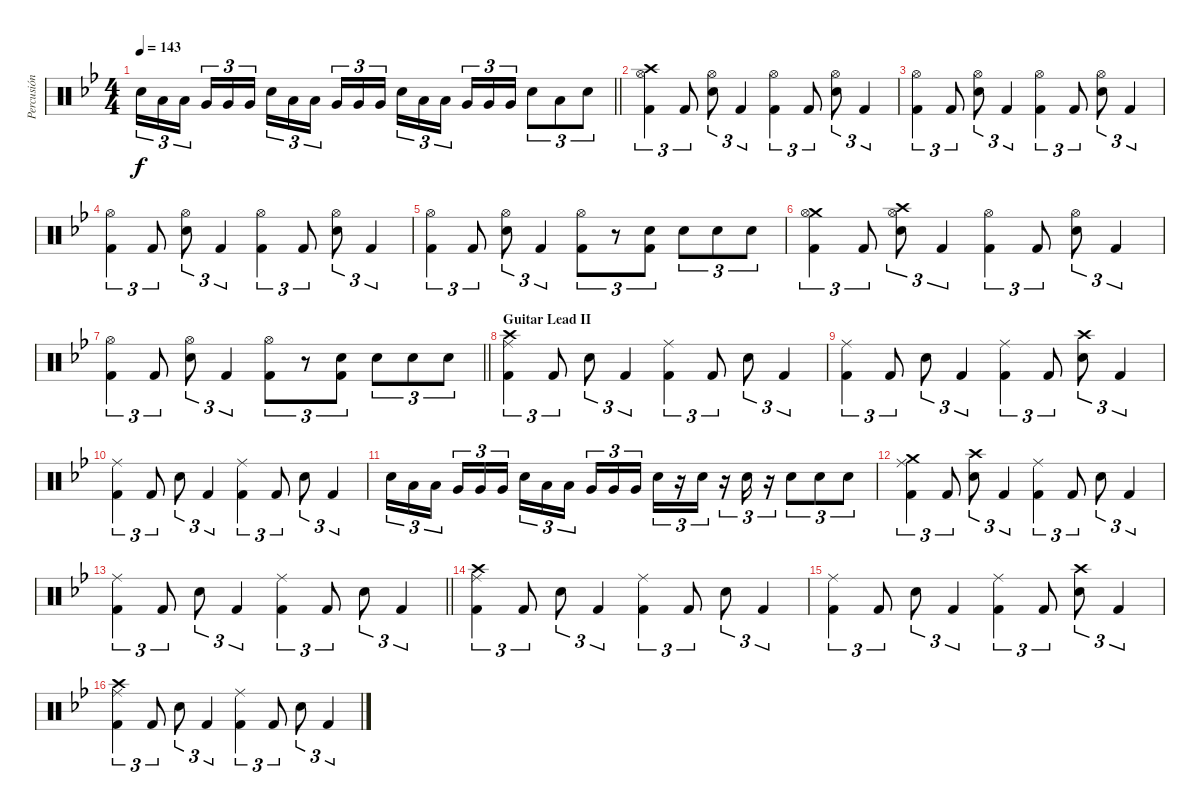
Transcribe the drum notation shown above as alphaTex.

\track ("Percusión" "Percusión") {instrument percussion}
\staff {score}
\articulation defaults
\ts (4 4)
\tempo 143
\clef neutral
\barLineRight lightlight
\ks bb "Snare (hit) 2".16{tu (3 2) dy f} "Low Tom (hit)".16{tu (3 2)} "Low Tom (hit)".16{tu (3 2)} "Very Low Tom (hit)".16{tu (3 2)} "Very Low Tom (hit)".16{tu (3 2)} "Very Low Tom (hit)".16{tu (3 2)} "Snare (hit) 2".16{tu (3 2)} "Low Tom (hit)".16{tu (3 2)} "Low Tom (hit)".16{tu (3 2)} "Very Low Tom (hit)".16{tu (3 2)} "Very Low Tom (hit)".16{tu (3 2)} "Very Low Tom (hit)".16{tu (3 2)} "Snare (hit) 2".16{tu (3 2)} "Low Tom (hit)".16{tu (3 2)} "Low Tom (hit)".16{tu (3 2)} "Very Low Tom (hit)".16{tu (3 2)} "Very Low Tom (hit)".16{tu (3 2)} "Very Low Tom (hit)".16{tu (3 2)} "Snare (hit) 2".8{tu (3 2)} "Low Tom (hit)".8{tu (3 2)} "Snare (hit) 2".8{tu (3 2)}
|
("Crash high (hit)" "Hi-Hat (open)" "Kick (hit) 2").4{tu (3 2)} "Kick (hit) 2".8{tu (3 2)} ("Snare (hit) 2" "Hi-Hat (open)").8{tu (3 2)} "Kick (hit) 2".4{tu (3 2)} ("Hi-Hat (open)" "Kick (hit) 2").4{tu (3 2)} "Kick (hit) 2".8{tu (3 2)} ("Snare (hit) 2" "Hi-Hat (open)").8{tu (3 2)} "Kick (hit) 2".4{tu (3 2)} |
("Hi-Hat (open)" "Kick (hit) 2").4{tu (3 2)} "Kick (hit) 2".8{tu (3 2)} ("Snare (hit) 2" "Hi-Hat (open)").8{tu (3 2)} "Kick (hit) 2".4{tu (3 2)} ("Hi-Hat (open)" "Kick (hit) 2").4{tu (3 2)} "Kick (hit) 2".8{tu (3 2)} ("Snare (hit) 2" "Hi-Hat (open)").8{tu (3 2)} "Kick (hit) 2".4{tu (3 2)} |
("Hi-Hat (open)" "Kick (hit) 2").4{tu (3 2)} "Kick (hit) 2".8{tu (3 2)} ("Snare (hit) 2" "Hi-Hat (open)").8{tu (3 2)} "Kick (hit) 2".4{tu (3 2)} ("Hi-Hat (open)" "Kick (hit) 2").4{tu (3 2)} "Kick (hit) 2".8{tu (3 2)} ("Snare (hit) 2" "Hi-Hat (open)").8{tu (3 2)} "Kick (hit) 2".4{tu (3 2)} |
("Hi-Hat (open)" "Kick (hit) 2").4{tu (3 2)} "Kick (hit) 2".8{tu (3 2)} ("Snare (hit) 2" "Hi-Hat (open)").8{tu (3 2)} "Kick (hit) 2".4{tu (3 2)} ("Hi-Hat (open)" "Kick (hit) 2").8{tu (3 2)} r.8{tu (3 2)} ("Snare (hit) 2" "Kick (hit) 2").8{tu (3 2)} "Snare (hit) 2".8{tu (3 2)} "Snare (hit) 2".8{tu (3 2)} "Snare (hit) 2".8{tu (3 2)} |
("Crash medium (hit)" "Hi-Hat (open)" "Kick (hit) 2").4{tu (3 2)} "Kick (hit) 2".8{tu (3 2)} ("Crash high (hit)" "Snare (hit) 2" "Hi-Hat (open)").8{tu (3 2)} "Kick (hit) 2".4{tu (3 2)} ("Hi-Hat (open)" "Kick (hit) 2").4{tu (3 2)} "Kick (hit) 2".8{tu (3 2)} ("Snare (hit) 2" "Hi-Hat (open)").8{tu (3 2)} "Kick (hit) 2".4{tu (3 2)} |
\barLineRight lightlight
("Hi-Hat (open)" "Kick (hit) 2").4{tu (3 2)} "Kick (hit) 2".8{tu (3 2)} ("Snare (hit) 2" "Hi-Hat (open)").8{tu (3 2)} "Kick (hit) 2".4{tu (3 2)} ("Hi-Hat (open)" "Kick (hit) 2").8{tu (3 2)} r.8{tu (3 2)} ("Snare (hit) 2" "Kick (hit) 2").8{tu (3 2)} "Snare (hit) 2".8{tu (3 2)} "Snare (hit) 2".8{tu (3 2)} "Snare (hit) 2".8{tu (3 2)} |
\section ("" "Guitar Lead II")
("Crash high (hit)" "Ride (middle)" "Kick (hit) 2").4{tu (3 2)} "Kick (hit) 2".8{tu (3 2)} "Snare (hit) 2".8{tu (3 2)} "Kick (hit) 2".4{tu (3 2)} ("Ride (middle)" "Kick (hit) 2").4{tu (3 2)} "Kick (hit) 2".8{tu (3 2)} "Snare (hit) 2".8{tu (3 2)} "Kick (hit) 2".4{tu (3 2)} |
("Ride (middle)" "Kick (hit) 2").4{tu (3 2)} "Kick (hit) 2".8{tu (3 2)} "Snare (hit) 2".8{tu (3 2)} "Kick (hit) 2".4{tu (3 2)} ("Ride (middle)" "Kick (hit) 2").4{tu (3 2)} "Kick (hit) 2".8{tu (3 2)} ("Crash high (hit)" "Snare (hit) 2").8{tu (3 2)} "Kick (hit) 2".4{tu (3 2)} |
("Ride (middle)" "Kick (hit) 2").4{tu (3 2)} "Kick (hit) 2".8{tu (3 2)} "Snare (hit) 2".8{tu (3 2)} "Kick (hit) 2".4{tu (3 2)} ("Ride (middle)" "Kick (hit) 2").4{tu (3 2)} "Kick (hit) 2".8{tu (3 2)} "Snare (hit) 2".8{tu (3 2)} "Kick (hit) 2".4{tu (3 2)} |
"Snare (hit) 2".16{tu (3 2)} "Low Tom (hit)".16{tu (3 2)} "Low Tom (hit)".16{tu (3 2)} "Very Low Tom (hit)".16{tu (3 2)} "Very Low Tom (hit)".16{tu (3 2)} "Very Low Tom (hit)".16{tu (3 2)} "Snare (hit) 2".16{tu (3 2)} "Low Tom (hit)".16{tu (3 2)} "Low Tom (hit)".16{tu (3 2)} "Very Low Tom (hit)".16{tu (3 2)} "Very Low Tom (hit)".16{tu (3 2)} "Very Low Tom (hit)".16{tu (3 2)} "Snare (hit) 2".16{tu (3 2)} r.16{tu (3 2)} "Snare (hit) 2".16{tu (3 2)} r.16{tu (3 2)} "Snare (hit) 2".16{tu (3 2)} r.16{tu (3 2)} "Snare (hit) 2".8{tu (3 2)} "Snare (hit) 2".8{tu (3 2)} "Snare (hit) 2".8{tu (3 2)} |
("Crash medium (hit)" "Ride (middle)" "Kick (hit) 2").4{tu (3 2)} "Kick (hit) 2".8{tu (3 2)} ("Crash high (hit)" "Snare (hit) 2").8{tu (3 2)} "Kick (hit) 2".4{tu (3 2)} ("Ride (middle)" "Kick (hit) 2").4{tu (3 2)} "Kick (hit) 2".8{tu (3 2)} "Snare (hit) 2".8{tu (3 2)} "Kick (hit) 2".4{tu (3 2)} |
\barLineRight lightlight
("Ride (middle)" "Kick (hit) 2").4{tu (3 2)} "Kick (hit) 2".8{tu (3 2)} "Snare (hit) 2".8{tu (3 2)} "Kick (hit) 2".4{tu (3 2)} ("Ride (middle)" "Kick (hit) 2").4{tu (3 2)} "Kick (hit) 2".8{tu (3 2)} "Snare (hit) 2".8{tu (3 2)} "Kick (hit) 2".4{tu (3 2)} |
("Crash high (hit)" "Ride (middle)" "Kick (hit) 2").4{tu (3 2)} "Kick (hit) 2".8{tu (3 2)} "Snare (hit) 2".8{tu (3 2)} "Kick (hit) 2".4{tu (3 2)} ("Ride (middle)" "Kick (hit) 2").4{tu (3 2)} "Kick (hit) 2".8{tu (3 2)} "Snare (hit) 2".8{tu (3 2)} "Kick (hit) 2".4{tu (3 2)} |
("Ride (middle)" "Kick (hit) 2").4{tu (3 2)} "Kick (hit) 2".8{tu (3 2)} "Snare (hit) 2".8{tu (3 2)} "Kick (hit) 2".4{tu (3 2)} ("Ride (middle)" "Kick (hit) 2").4{tu (3 2)} "Kick (hit) 2".8{tu (3 2)} ("Crash high (hit)" "Snare (hit) 2").8{tu (3 2)} "Kick (hit) 2".4{tu (3 2)} |
("Crash high (hit)" "Ride (middle)" "Kick (hit) 2").4{tu (3 2)} "Kick (hit) 2".8{tu (3 2)} "Snare (hit) 2".8{tu (3 2)} "Kick (hit) 2".4{tu (3 2)} ("Ride (middle)" "Kick (hit) 2").4{tu (3 2)} "Kick (hit) 2".8{tu (3 2)} "Snare (hit) 2".8{tu (3 2)} "Kick (hit) 2".4{tu (3 2)}
